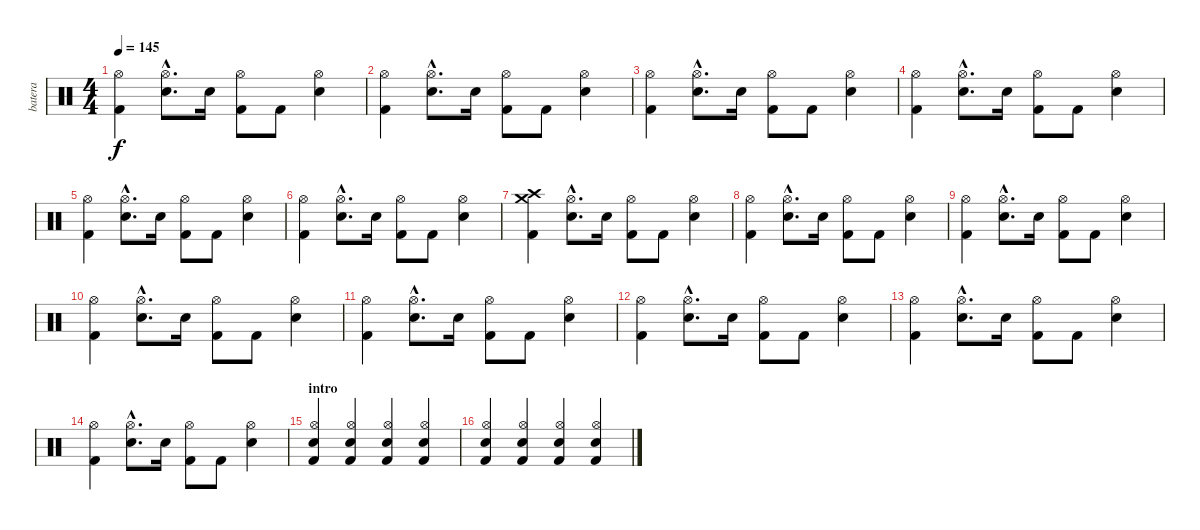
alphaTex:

\track ("batera" "batera") {instrument percussion}
\staff {score}
\articulation defaults
\ts (4 4)
\tempo 145
\clef neutral
\ks c
("Kick (hit) 2" "Hi-Hat (open)").4{dy f} ("Snare (hit) 2"{hac} "Hi-Hat (open)"{hac}).8{d} "Snare (hit) 2".16 ("Kick (hit) 2" "Hi-Hat (open)").8 "Kick (hit) 2".8 ("Snare (hit) 2" "Hi-Hat (open)").4 |
("Kick (hit) 2" "Hi-Hat (open)").4 ("Snare (hit) 2"{hac} "Hi-Hat (open)"{hac}).8{d} "Snare (hit) 2".16 ("Kick (hit) 2" "Hi-Hat (open)").8 "Kick (hit) 2".8 ("Snare (hit) 2" "Hi-Hat (open)").4 |
("Kick (hit) 2" "Hi-Hat (open)").4 ("Snare (hit) 2"{hac} "Hi-Hat (open)"{hac}).8{d} "Snare (hit) 2".16 ("Kick (hit) 2" "Hi-Hat (open)").8 "Kick (hit) 2".8 ("Snare (hit) 2" "Hi-Hat (open)").4 |
("Kick (hit) 2" "Hi-Hat (open)").4 ("Snare (hit) 2"{hac} "Hi-Hat (open)"{hac}).8{d} "Snare (hit) 2".16 ("Kick (hit) 2" "Hi-Hat (open)").8 "Kick (hit) 2".8 ("Snare (hit) 2" "Hi-Hat (open)").4 |
("Kick (hit) 2" "Hi-Hat (open)").4 ("Snare (hit) 2"{hac} "Hi-Hat (open)"{hac}).8{d} "Snare (hit) 2".16 ("Kick (hit) 2" "Hi-Hat (open)").8 "Kick (hit) 2".8 ("Snare (hit) 2" "Hi-Hat (open)").4 |
("Kick (hit) 2" "Hi-Hat (open)").4 ("Snare (hit) 2"{hac} "Hi-Hat (open)"{hac}).8{d} "Snare (hit) 2".16 ("Kick (hit) 2" "Hi-Hat (open)").8 "Kick (hit) 2".8 ("Snare (hit) 2" "Hi-Hat (open)").4 |
("Crash high (hit)" "Crash medium (hit)" "Kick (hit) 2").4 ("Snare (hit) 2"{hac} "Hi-Hat (open)"{hac}).8{d} "Snare (hit) 2".16 ("Kick (hit) 2" "Hi-Hat (open)").8 "Kick (hit) 2".8 ("Snare (hit) 2" "Hi-Hat (open)").4 |
("Kick (hit) 2" "Hi-Hat (open)").4 ("Snare (hit) 2"{hac} "Hi-Hat (open)"{hac}).8{d} "Snare (hit) 2".16 ("Kick (hit) 2" "Hi-Hat (open)").8 "Kick (hit) 2".8 ("Snare (hit) 2" "Hi-Hat (open)").4 |
("Kick (hit) 2" "Hi-Hat (open)").4 ("Snare (hit) 2"{hac} "Hi-Hat (open)"{hac}).8{d} "Snare (hit) 2".16 ("Kick (hit) 2" "Hi-Hat (open)").8 "Kick (hit) 2".8 ("Snare (hit) 2" "Hi-Hat (open)").4 |
("Kick (hit) 2" "Hi-Hat (open)").4 ("Snare (hit) 2"{hac} "Hi-Hat (open)"{hac}).8{d} "Snare (hit) 2".16 ("Kick (hit) 2" "Hi-Hat (open)").8 "Kick (hit) 2".8 ("Snare (hit) 2" "Hi-Hat (open)").4 |
("Kick (hit) 2" "Hi-Hat (open)").4 ("Snare (hit) 2"{hac} "Hi-Hat (open)"{hac}).8{d} "Snare (hit) 2".16 ("Kick (hit) 2" "Hi-Hat (open)").8 "Kick (hit) 2".8 ("Snare (hit) 2" "Hi-Hat (open)").4 |
("Kick (hit) 2" "Hi-Hat (open)").4 ("Snare (hit) 2"{hac} "Hi-Hat (open)"{hac}).8{d} "Snare (hit) 2".16 ("Kick (hit) 2" "Hi-Hat (open)").8 "Kick (hit) 2".8 ("Snare (hit) 2" "Hi-Hat (open)").4 |
("Kick (hit) 2" "Hi-Hat (open)").4 ("Snare (hit) 2"{hac} "Hi-Hat (open)"{hac}).8{d} "Snare (hit) 2".16 ("Kick (hit) 2" "Hi-Hat (open)").8 "Kick (hit) 2".8 ("Snare (hit) 2" "Hi-Hat (open)").4 |
("Kick (hit) 2" "Hi-Hat (open)").4 ("Snare (hit) 2"{hac} "Hi-Hat (open)"{hac}).8{d} "Snare (hit) 2".16 ("Kick (hit) 2" "Hi-Hat (open)").8 "Kick (hit) 2".8 ("Snare (hit) 2" "Hi-Hat (open)").4 |
\section ("" "intro")
("Snare (hit) 2" "Kick (hit) 2" "Hi-Hat (open)").4 ("Snare (hit) 2" "Kick (hit) 2" "Hi-Hat (open)").4 ("Snare (hit) 2" "Kick (hit) 2" "Hi-Hat (open)").4 ("Snare (hit) 2" "Kick (hit) 2" "Hi-Hat (open)").4 |
("Snare (hit) 2" "Kick (hit) 2" "Hi-Hat (open)").4 ("Snare (hit) 2" "Kick (hit) 2" "Hi-Hat (open)").4 ("Snare (hit) 2" "Kick (hit) 2" "Hi-Hat (open)").4 ("Snare (hit) 2" "Kick (hit) 2" "Hi-Hat (open)").4
